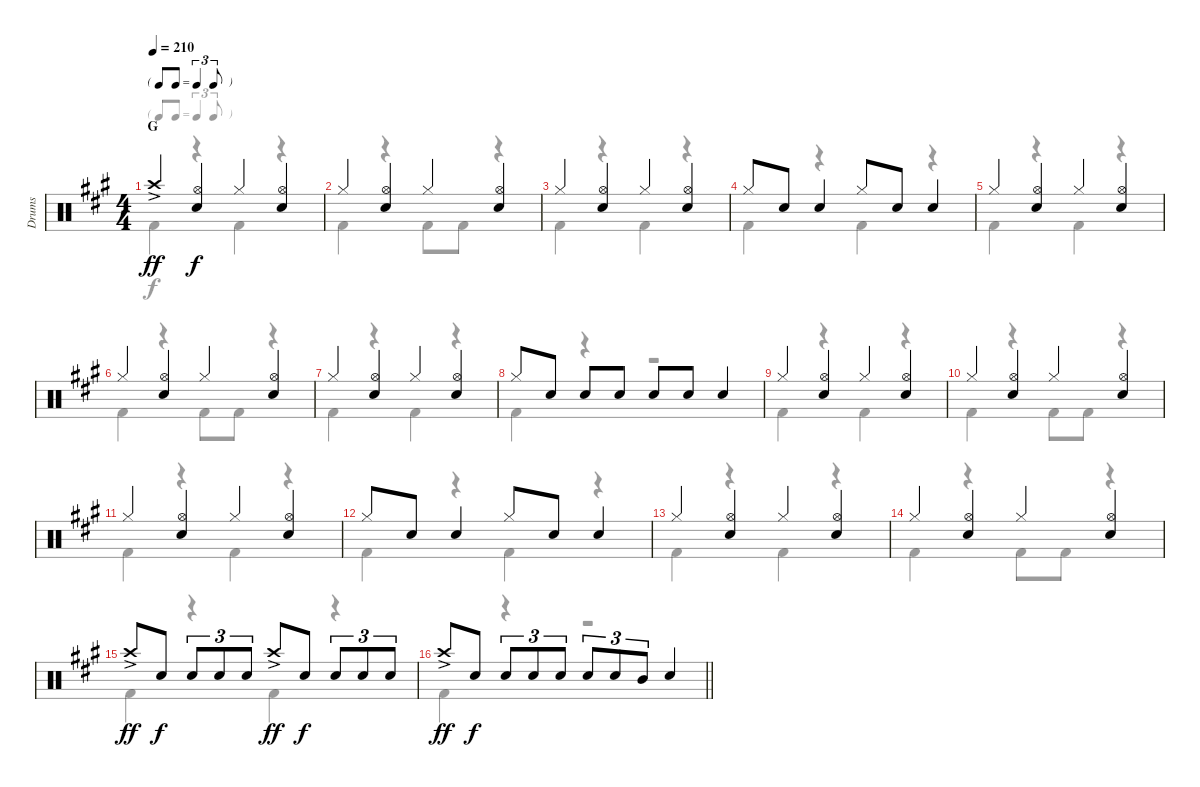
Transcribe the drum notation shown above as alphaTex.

\track ("Drums" "Drums") {instrument percussion}
\staff {score}
\articulation defaults
\voice
\ts (4 4)
\tf triplet8th
\section ("" "G")
\tempo 210
\clef neutral
\ks a "Crash high (hit)"{ac}.4{dy ff}
("Hi-Hat (open)" "Snare (hit) 2").4{dy f} "Hi-Hat (closed)".4 ("Hi-Hat (open)" "Snare (hit) 2").4 |
"Hi-Hat (closed)".4 ("Hi-Hat (open)" "Snare (hit) 2").4 "Hi-Hat (closed)".4 ("Hi-Hat (open)" "Snare (hit) 2").4 |
"Hi-Hat (closed)".4 ("Hi-Hat (open)" "Snare (hit) 2").4 "Hi-Hat (closed)".4 ("Hi-Hat (open)" "Snare (hit) 2").4 |
"Hi-Hat (closed)".8 "Snare (hit) 2".8 "Snare (hit) 2".4 "Hi-Hat (closed)".8 "Snare (hit) 2".8 "Snare (hit) 2".4 |
"Hi-Hat (closed)".4 ("Hi-Hat (open)" "Snare (hit) 2").4 "Hi-Hat (closed)".4 ("Hi-Hat (open)" "Snare (hit) 2").4 |
"Hi-Hat (closed)".4 ("Hi-Hat (open)" "Snare (hit) 2").4 "Hi-Hat (closed)".4 ("Hi-Hat (open)" "Snare (hit) 2").4 |
"Hi-Hat (closed)".4 ("Hi-Hat (open)" "Snare (hit) 2").4 "Hi-Hat (closed)".4 ("Hi-Hat (open)" "Snare (hit) 2").4 |
"Hi-Hat (closed)".8 "Snare (hit) 2".8 "Snare (hit) 2".8 "Snare (hit) 2".8 "Snare (hit) 2".8 "Snare (hit) 2".8 "Snare (hit) 2".4 |
"Hi-Hat (closed)".4 ("Hi-Hat (open)" "Snare (hit) 2").4 "Hi-Hat (closed)".4 ("Hi-Hat (open)" "Snare (hit) 2").4 |
"Hi-Hat (closed)".4 ("Hi-Hat (open)" "Snare (hit) 2").4 "Hi-Hat (closed)".4 ("Hi-Hat (open)" "Snare (hit) 2").4 |
"Hi-Hat (closed)".4 ("Hi-Hat (open)" "Snare (hit) 2").4 "Hi-Hat (closed)".4 ("Hi-Hat (open)" "Snare (hit) 2").4 |
"Hi-Hat (closed)".8 "Snare (hit) 2".8 "Snare (hit) 2".4 "Hi-Hat (closed)".8 "Snare (hit) 2".8 "Snare (hit) 2".4 |
"Hi-Hat (closed)".4 ("Hi-Hat (open)" "Snare (hit) 2").4 "Hi-Hat (closed)".4 ("Hi-Hat (open)" "Snare (hit) 2").4 |
"Hi-Hat (closed)".4 ("Hi-Hat (open)" "Snare (hit) 2").4 "Hi-Hat (closed)".4 ("Hi-Hat (open)" "Snare (hit) 2").4 |
"Crash high (hit)"{ac}.8{dy ff} "Snare (hit) 2".8{dy f} "Snare (hit) 2".8{tu (3 2)} "Snare (hit) 2".8{tu (3 2)} "Snare (hit) 2".8{tu (3 2)} "Crash high (hit)"{ac}.8{dy ff} "Snare (hit) 2".8{dy f} "Snare (hit) 2".8{tu (3 2)} "Snare (hit) 2".8{tu (3 2)} "Snare (hit) 2".8{tu (3 2)} |
\barLineRight lightlight "Crash high (hit)"{ac}.8{dy ff} "Snare (hit) 2".8{dy f} "Snare (hit) 2".8{tu (3 2)} "Snare (hit) 2".8{tu (3 2)} "Snare (hit) 2".8{tu (3 2)} "Snare (hit) 2".8{tu (3 2)} "Snare (hit) 2".8{tu (3 2)} "Mid Tom (hit)".8{tu (3 2)} "Snare (hit) 2".4
\voice
\clef neutral
\ottava regular
\simile none
\ks a "Kick (hit) 2".4{dy f}
r.4 "Kick (hit) 2".4 r.4 |
"Kick (hit) 2".4 r.4 "Kick (hit) 2".8 "Kick (hit) 2".8 r.4 |
"Kick (hit) 2".4 r.4 "Kick (hit) 2".4 r.4 |
"Kick (hit) 2".4 r.4 "Kick (hit) 2".4 r.4 |
"Kick (hit) 2".4 r.4 "Kick (hit) 2".4 r.4 |
"Kick (hit) 2".4 r.4 "Kick (hit) 2".8 "Kick (hit) 2".8 r.4 |
"Kick (hit) 2".4 r.4 "Kick (hit) 2".4 r.4 |
"Kick (hit) 2".4 r.4 r.2 |
"Kick (hit) 2".4 r.4 "Kick (hit) 2".4 r.4 |
"Kick (hit) 2".4 r.4 "Kick (hit) 2".8 "Kick (hit) 2".8 r.4 |
"Kick (hit) 2".4 r.4 "Kick (hit) 2".4 r.4 |
"Kick (hit) 2".4 r.4 "Kick (hit) 2".4 r.4 |
"Kick (hit) 2".4 r.4 "Kick (hit) 2".4 r.4 |
"Kick (hit) 2".4 r.4 "Kick (hit) 2".8 "Kick (hit) 2".8 r.4 |
"Kick (hit) 2".4 r.4 "Kick (hit) 2".4 r.4 |
\barLineRight lightlight "Kick (hit) 2".4
r.4 r.2
